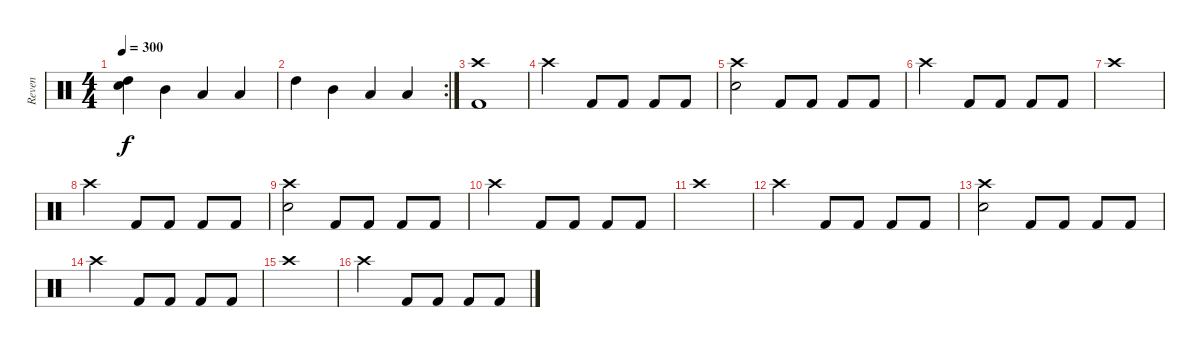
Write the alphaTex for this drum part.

\track ("Reven" "Reven") {instrument percussion}
\staff {score}
\articulation defaults
\ts (4 4)
\tempo 300
\clef neutral
\ks c
("High Tom (hit)" "Electric Snare (hit)").4{dy f} "Mid Tom (hit)".4 "Low Tom (hit)".4 "Low Floor Tom (hit)".4 |
\rc 2 "High Tom (hit)".4 "Mid Tom (hit)".4 "Low Tom (hit)".4 "Low Floor Tom (hit)".4
|
("Crash high (hit)" "Kick (hit) 2").1 |
"Crash high (hit)".2 "Kick (hit) 2".8 "Kick (hit) 2".8 "Kick (hit) 2".8 "Kick (hit) 2".8 |
("Crash high (hit)" "Electric Snare (hit)").2 "Kick (hit) 2".8 "Kick (hit) 2".8 "Kick (hit) 2".8 "Kick (hit) 2".8 |
"Crash high (hit)".2 "Kick (hit) 2".8 "Kick (hit) 2".8 "Kick (hit) 2".8 "Kick (hit) 2".8 |
"Crash high (hit)".1 |
"Crash high (hit)".2 "Kick (hit) 2".8 "Kick (hit) 2".8 "Kick (hit) 2".8 "Kick (hit) 2".8 |
("Crash high (hit)" "Electric Snare (hit)").2 "Kick (hit) 2".8 "Kick (hit) 2".8 "Kick (hit) 2".8 "Kick (hit) 2".8 |
"Crash high (hit)".2 "Kick (hit) 2".8 "Kick (hit) 2".8 "Kick (hit) 2".8 "Kick (hit) 2".8 |
"Crash high (hit)".1 |
"Crash high (hit)".2 "Kick (hit) 2".8 "Kick (hit) 2".8 "Kick (hit) 2".8 "Kick (hit) 2".8 |
("Crash high (hit)" "Electric Snare (hit)").2 "Kick (hit) 2".8 "Kick (hit) 2".8 "Kick (hit) 2".8 "Kick (hit) 2".8 |
"Crash high (hit)".2 "Kick (hit) 2".8 "Kick (hit) 2".8 "Kick (hit) 2".8 "Kick (hit) 2".8 |
"Crash high (hit)".1 |
"Crash high (hit)".2 "Kick (hit) 2".8 "Kick (hit) 2".8 "Kick (hit) 2".8 "Kick (hit) 2".8
